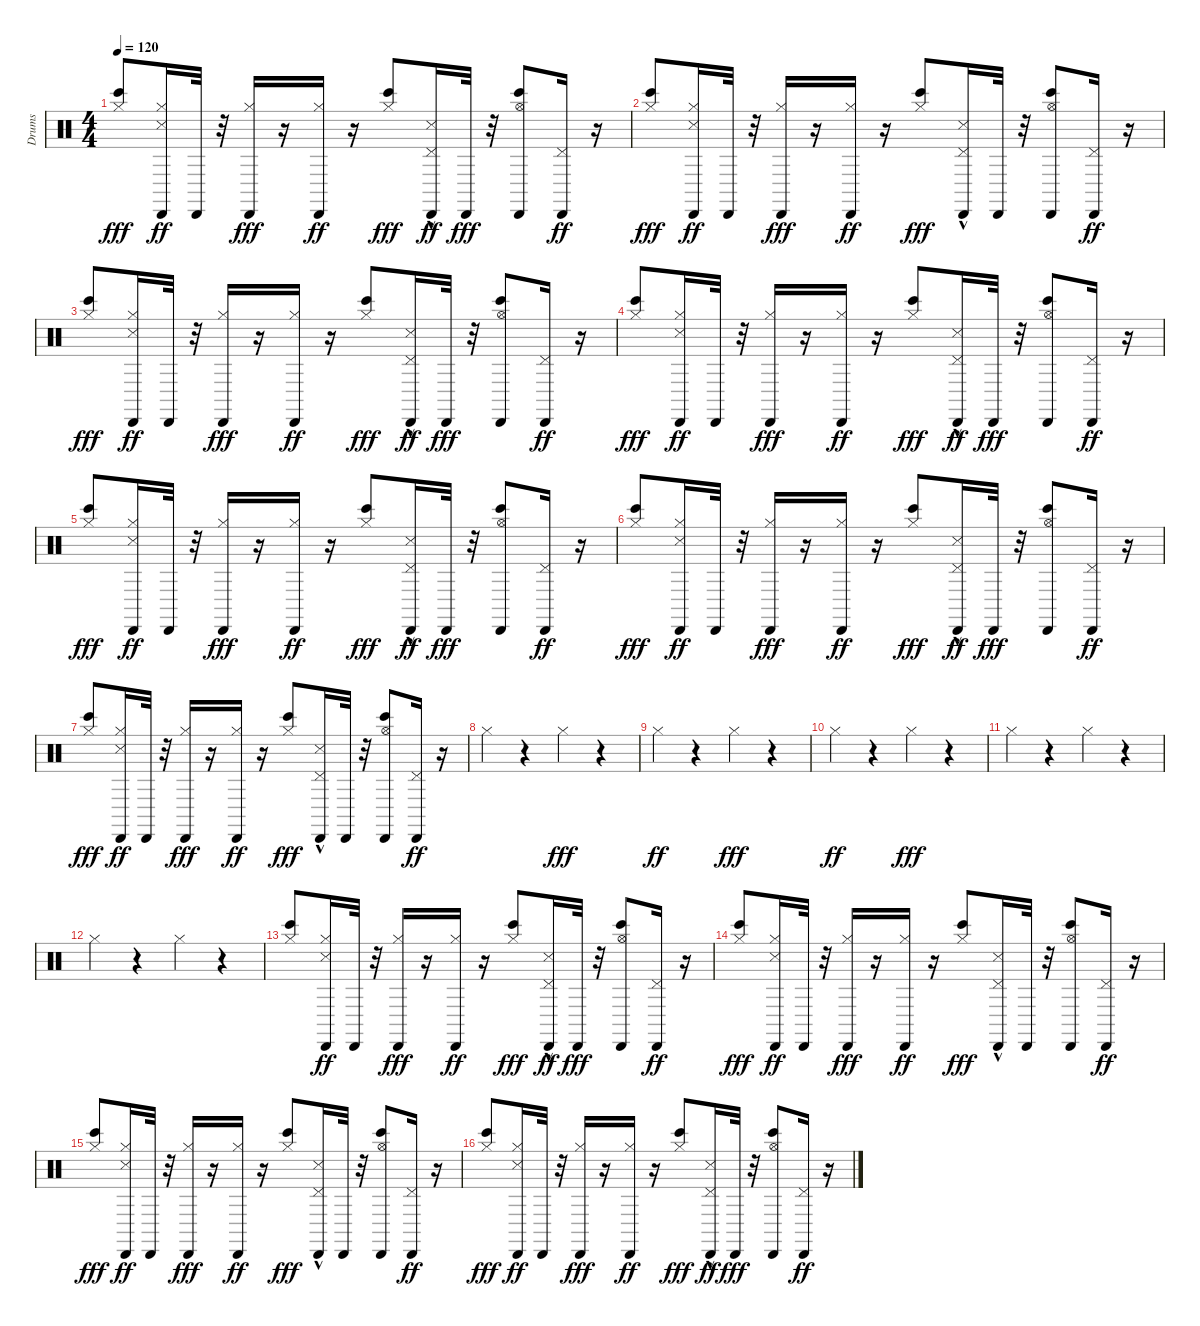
\track ("Drums" "Drums") {instrument percussion}
\staff {score}
\articulation defaults
\ts (4 4)
\tempo 120
\clef neutral
\ks c
("Hi-Hat (closed)" "Bongo High (hit)").8{dy fff} ("Snare (side stick) 3" "Cabasa (hit)" "Hi-Hat (closed)").16{dy ff} "Cabasa (hit)".32 r.32 ("Cabasa (hit)" "Hi-Hat (closed)").16{dy fff} r.16 ("Cabasa (hit)" "Hi-Hat (closed)").16{dy ff} r.16 ("Hi-Hat (closed)" "Bongo High (hit)").8{dy fff} ("Snare (side stick) 3"{hac} "Cabasa (hit)" "Pedal Hi-Hat (hit)").16{dy ff} "Cabasa (hit)".32{dy fff} r.32 ("Cabasa (hit)" "Hi-Hat (open)" "Bongo High (hit)").8 ("Cabasa (hit)" "Pedal Hi-Hat (hit)").16{dy ff} r.16 |
("Hi-Hat (closed)" "Bongo High (hit)").8{dy fff} ("Snare (side stick) 3" "Cabasa (hit)" "Hi-Hat (closed)").16{dy ff} "Cabasa (hit)".32 r.32 ("Cabasa (hit)" "Hi-Hat (closed)").16{dy fff} r.16 ("Cabasa (hit)" "Hi-Hat (closed)").16{dy ff} r.16 ("Hi-Hat (closed)" "Bongo High (hit)").8{dy fff} ("Pedal Hi-Hat (hit)" "Snare (side stick) 3"{hac} "Cabasa (hit)").16 "Cabasa (hit)".32 r.32 ("Cabasa (hit)" "Hi-Hat (open)" "Bongo High (hit)").8 ("Cabasa (hit)" "Pedal Hi-Hat (hit)").16{dy ff} r.16 |
("Hi-Hat (closed)" "Bongo High (hit)").8{dy fff} ("Snare (side stick) 3" "Cabasa (hit)" "Hi-Hat (closed)").16{dy ff} "Cabasa (hit)".32 r.32 ("Cabasa (hit)" "Hi-Hat (closed)").16{dy fff} r.16 ("Cabasa (hit)" "Hi-Hat (closed)").16{dy ff} r.16 ("Hi-Hat (closed)" "Bongo High (hit)").8{dy fff} ("Snare (side stick) 3"{hac} "Cabasa (hit)" "Pedal Hi-Hat (hit)").16{dy ff} "Cabasa (hit)".32{dy fff} r.32 ("Cabasa (hit)" "Hi-Hat (open)" "Bongo High (hit)").8 ("Cabasa (hit)" "Pedal Hi-Hat (hit)").16{dy ff} r.16 |
("Hi-Hat (closed)" "Bongo High (hit)").8{dy fff} ("Snare (side stick) 3" "Cabasa (hit)" "Hi-Hat (closed)").16{dy ff} "Cabasa (hit)".32 r.32 ("Cabasa (hit)" "Hi-Hat (closed)").16{dy fff} r.16 ("Cabasa (hit)" "Hi-Hat (closed)").16{dy ff} r.16 ("Hi-Hat (closed)" "Bongo High (hit)").8{dy fff} ("Snare (side stick) 3"{hac} "Cabasa (hit)" "Pedal Hi-Hat (hit)").16{dy ff} "Cabasa (hit)".32{dy fff} r.32 ("Cabasa (hit)" "Hi-Hat (open)" "Bongo High (hit)").8 ("Cabasa (hit)" "Pedal Hi-Hat (hit)").16{dy ff} r.16 |
("Hi-Hat (closed)" "Bongo High (hit)").8{dy fff} ("Snare (side stick) 3" "Cabasa (hit)" "Hi-Hat (closed)").16{dy ff} "Cabasa (hit)".32 r.32 ("Cabasa (hit)" "Hi-Hat (closed)").16{dy fff} r.16 ("Cabasa (hit)" "Hi-Hat (closed)").16{dy ff} r.16 ("Hi-Hat (closed)" "Bongo High (hit)").8{dy fff} ("Snare (side stick) 3"{hac} "Cabasa (hit)" "Pedal Hi-Hat (hit)").16{dy ff} "Cabasa (hit)".32{dy fff} r.32 ("Cabasa (hit)" "Hi-Hat (open)" "Bongo High (hit)").8 ("Cabasa (hit)" "Pedal Hi-Hat (hit)").16{dy ff} r.16 |
("Hi-Hat (closed)" "Bongo High (hit)").8{dy fff} ("Snare (side stick) 3" "Cabasa (hit)" "Hi-Hat (closed)").16{dy ff} "Cabasa (hit)".32 r.32 ("Cabasa (hit)" "Hi-Hat (closed)").16{dy fff} r.16 ("Cabasa (hit)" "Hi-Hat (closed)").16{dy ff} r.16 ("Hi-Hat (closed)" "Bongo High (hit)").8{dy fff} ("Snare (side stick) 3"{hac} "Cabasa (hit)" "Pedal Hi-Hat (hit)").16{dy ff} "Cabasa (hit)".32{dy fff} r.32 ("Cabasa (hit)" "Hi-Hat (open)" "Bongo High (hit)").8 ("Cabasa (hit)" "Pedal Hi-Hat (hit)").16{dy ff} r.16 |
("Hi-Hat (closed)" "Bongo High (hit)").8{dy fff} ("Snare (side stick) 3" "Cabasa (hit)" "Hi-Hat (closed)").16{dy ff} "Cabasa (hit)".32 r.32 ("Cabasa (hit)" "Hi-Hat (closed)").16{dy fff} r.16 ("Cabasa (hit)" "Hi-Hat (closed)").16{dy ff} r.16 ("Hi-Hat (closed)" "Bongo High (hit)").8{dy fff} ("Pedal Hi-Hat (hit)" "Snare (side stick) 3"{hac} "Cabasa (hit)").16 "Cabasa (hit)".32 r.32 ("Cabasa (hit)" "Hi-Hat (open)" "Bongo High (hit)").8 ("Cabasa (hit)" "Pedal Hi-Hat (hit)").16{dy ff} r.16 |
"Hi-Hat (closed)".4 r.4 "Hi-Hat (closed)".4{dy fff} r.4 |
"Hi-Hat (closed)".4{dy ff} r.4 "Hi-Hat (closed)".4{dy fff} r.4 |
"Hi-Hat (closed)".4{dy ff} r.4 "Hi-Hat (closed)".4{dy fff} r.4 |
"Hi-Hat (closed)".4 r.4 "Hi-Hat (closed)".4 r.4 |
"Hi-Hat (closed)".4 r.4 "Hi-Hat (closed)".4 r.4 |
("Hi-Hat (closed)" "Bongo High (hit)").8 ("Snare (side stick) 3" "Cabasa (hit)" "Hi-Hat (closed)").16{dy ff} "Cabasa (hit)".32 r.32 ("Cabasa (hit)" "Hi-Hat (closed)").16{dy fff} r.16 ("Cabasa (hit)" "Hi-Hat (closed)").16{dy ff} r.16 ("Hi-Hat (closed)" "Bongo High (hit)").8{dy fff} ("Snare (side stick) 3"{hac} "Cabasa (hit)" "Pedal Hi-Hat (hit)").16{dy ff} "Cabasa (hit)".32{dy fff} r.32 ("Cabasa (hit)" "Hi-Hat (open)" "Bongo High (hit)").8 ("Cabasa (hit)" "Pedal Hi-Hat (hit)").16{dy ff} r.16 |
("Hi-Hat (closed)" "Bongo High (hit)").8{dy fff} ("Snare (side stick) 3" "Cabasa (hit)" "Hi-Hat (closed)").16{dy ff} "Cabasa (hit)".32 r.32 ("Cabasa (hit)" "Hi-Hat (closed)").16{dy fff} r.16 ("Cabasa (hit)" "Hi-Hat (closed)").16{dy ff} r.16 ("Hi-Hat (closed)" "Bongo High (hit)").8{dy fff} ("Pedal Hi-Hat (hit)" "Snare (side stick) 3"{hac} "Cabasa (hit)").16 "Cabasa (hit)".32 r.32 ("Cabasa (hit)" "Hi-Hat (open)" "Bongo High (hit)").8 ("Cabasa (hit)" "Pedal Hi-Hat (hit)").16{dy ff} r.16 |
("Hi-Hat (closed)" "Bongo High (hit)").8{dy fff} ("Snare (side stick) 3" "Cabasa (hit)" "Hi-Hat (closed)").16{dy ff} "Cabasa (hit)".32 r.32 ("Cabasa (hit)" "Hi-Hat (closed)").16{dy fff} r.16 ("Cabasa (hit)" "Hi-Hat (closed)").16{dy ff} r.16 ("Hi-Hat (closed)" "Bongo High (hit)").8{dy fff} ("Pedal Hi-Hat (hit)" "Snare (side stick) 3"{hac} "Cabasa (hit)").16 "Cabasa (hit)".32 r.32 ("Cabasa (hit)" "Hi-Hat (open)" "Bongo High (hit)").8 ("Cabasa (hit)" "Pedal Hi-Hat (hit)").16{dy ff} r.16 |
("Hi-Hat (closed)" "Bongo High (hit)").8{dy fff} ("Snare (side stick) 3" "Cabasa (hit)" "Hi-Hat (closed)").16{dy ff} "Cabasa (hit)".32 r.32 ("Cabasa (hit)" "Hi-Hat (closed)").16{dy fff} r.16 ("Cabasa (hit)" "Hi-Hat (closed)").16{dy ff} r.16 ("Hi-Hat (closed)" "Bongo High (hit)").8{dy fff} ("Snare (side stick) 3"{hac} "Cabasa (hit)" "Pedal Hi-Hat (hit)").16{dy ff} "Cabasa (hit)".32{dy fff} r.32 ("Cabasa (hit)" "Hi-Hat (open)" "Bongo High (hit)").8 ("Cabasa (hit)" "Pedal Hi-Hat (hit)").16{dy ff} r.16
